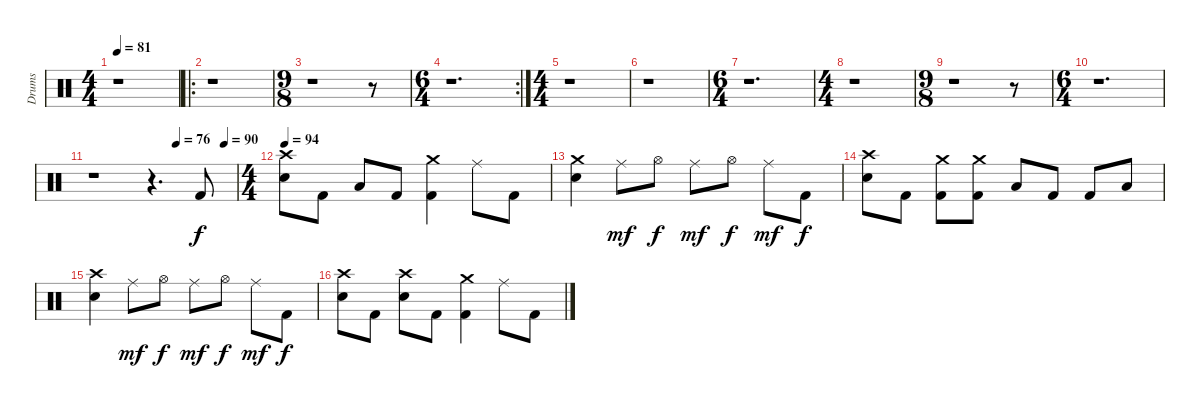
\track ("Drums" "Drums") {instrument percussion}
\staff {score}
\articulation defaults
\ts (4 4)
\tempo 81
\clef neutral
\ks c
r.1{dy f} |
\ro
r.1 |
\ts (9 8)
r.1 r.8 |
\rc 2
\ts (6 4)
r.1{d} |
\ts (4 4)
r.1 |
r.1 |
\ts (6 4)
r.1{d} |
\ts (4 4)
r.1 |
\ts (9 8)
r.1 r.8 |
\ts (6 4)
r.1{d} |
\tempo (76 0.5833333333333334)
\tempo (90 0.9166666666666666)
r.1 r.4{d} "Kick (hit) 2".8 |
\ts (4 4)
\tempo 94
("Crash high (hit)" "Electric Snare (hit)").8 "Kick (hit) 2".8 "Low Tom (hit)".8 "Kick (hit) 2".8 ("Crash medium (hit)" "Kick (hit) 2").4 "Ride (middle)".8 "Kick (hit) 2".8 |
("Crash medium (hit)" "Electric Snare (hit)").4 "Ride (middle)".8{dy mf} "Hi-Hat (open)".8{dy f} "Ride (middle)".8{dy mf} "Hi-Hat (open)".8{dy f} "Ride (middle)".8{dy mf} "Kick (hit) 2".8{dy f} |
("Crash high (hit)" "Electric Snare (hit)").8 "Kick (hit) 2".8 ("Crash medium (hit)" "Kick (hit) 2").8 ("Crash medium (hit)" "Kick (hit) 2").8 "Low Tom (hit)".8 "Kick (hit) 2".8 "Kick (hit) 2".8 "Low Tom (hit)".8 |
("Crash high (hit)" "Electric Snare (hit)").4 "Ride (middle)".8{dy mf} "Hi-Hat (open)".8{dy f} "Ride (middle)".8{dy mf} "Hi-Hat (open)".8{dy f} "Ride (middle)".8{dy mf} "Kick (hit) 2".8{dy f} |
("Crash high (hit)" "Electric Snare (hit)").8 "Kick (hit) 2".8 ("Crash high (hit)" "Electric Snare (hit)").8 "Kick (hit) 2".8 ("Crash medium (hit)" "Kick (hit) 2").4 "Ride (middle)".8 "Kick (hit) 2".8
